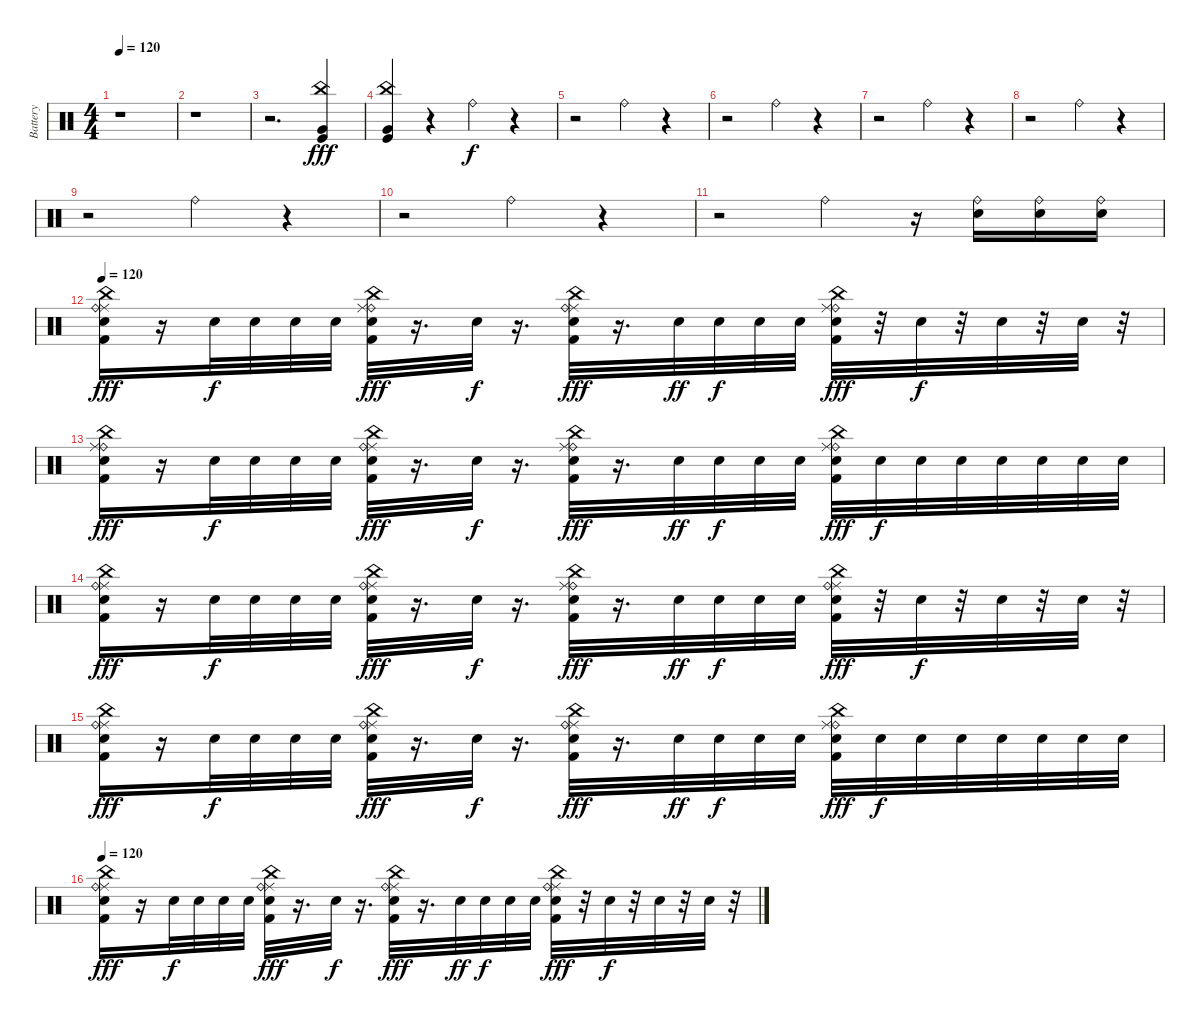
\track ("Battery" "Battery") {instrument percussion}
\staff {score}
\articulation defaults
\ts (4 4)
\tempo 120
\clef neutral
\ks c
r.1{dy fff} |
r.1 |
r.2{d} ("Very Low Tom (hit)" "China (hit)" "Kick (hit)").4 |
("Very Low Tom (hit)" "China (hit)" "Kick (hit)").4 r.4 "Ride (bell)".4{dy f} r.4 |
r.2 "Ride (bell)".4 r.4 |
r.2 "Ride (bell)".4 r.4 |
r.2 "Ride (bell)".4 r.4 |
r.2 "Ride (bell)".4 r.4 |
r.2 "Ride (bell)".4 r.4 |
r.2 "Ride (bell)".4 r.4 |
r.2 "Ride (bell)".4 r.16 ("Electric Snare (hit)" "Ride (bell)").16 ("Electric Snare (hit)" "Ride (bell)").16 ("Electric Snare (hit)" "Ride (bell)").16 |
\tempo 120
("China (hit)" "Electric Snare (hit)" "Ride (middle)" "Ride (bell)" "Kick (hit) 2").16{dy fff} r.16 "Electric Snare (hit)".32{dy f} "Electric Snare (hit)".32 "Electric Snare (hit)".32 "Electric Snare (hit)".32 ("China (hit)" "Ride (bell)" "Ride (middle)" "Electric Snare (hit)" "Kick (hit) 2").32{dy fff} r.16{d} "Electric Snare (hit)".32{dy f} r.16{d} ("Ride (middle)" "Ride (bell)" "Electric Snare (hit)" "China (hit)" "Kick (hit) 2").32{dy fff} r.16{d} "Electric Snare (hit)".32{dy ff} "Electric Snare (hit)".32{dy f} "Electric Snare (hit)".32 "Electric Snare (hit)".32 ("China (hit)" "Ride (bell)" "Electric Snare (hit)" "Ride (middle)" "Kick (hit) 2").32{dy fff} r.32 "Electric Snare (hit)".32{dy f} r.32 "Electric Snare (hit)".32 r.32 "Electric Snare (hit)".32 r.32 |
("Electric Snare (hit)" "China (hit)" "Ride (bell)" "Ride (middle)" "Kick (hit) 2").16{dy fff} r.16 "Electric Snare (hit)".32{dy f} "Electric Snare (hit)".32 "Electric Snare (hit)".32 "Electric Snare (hit)".32 ("Electric Snare (hit)" "Ride (middle)" "Ride (bell)" "China (hit)" "Kick (hit) 2").32{dy fff} r.16{d} "Electric Snare (hit)".32{dy f} r.16{d} ("Ride (bell)" "China (hit)" "Ride (middle)" "Electric Snare (hit)" "Kick (hit) 2").32{dy fff} r.16{d} "Electric Snare (hit)".32{dy ff} "Electric Snare (hit)".32{dy f} "Electric Snare (hit)".32 "Electric Snare (hit)".32 ("Electric Snare (hit)" "Ride (bell)" "China (hit)" "Ride (middle)" "Kick (hit) 2").32{dy fff} "Electric Snare (hit)".32{dy f} "Electric Snare (hit)".32 "Electric Snare (hit)".32 "Electric Snare (hit)".32 "Electric Snare (hit)".32 "Electric Snare (hit)".32 "Electric Snare (hit)".32 |
("Electric Snare (hit)" "Ride (middle)" "Ride (bell)" "China (hit)" "Kick (hit) 2").16{dy fff} r.16 "Electric Snare (hit)".32{dy f} "Electric Snare (hit)".32 "Electric Snare (hit)".32 "Electric Snare (hit)".32 ("China (hit)" "Ride (middle)" "Electric Snare (hit)" "Ride (bell)" "Kick (hit) 2").32{dy fff} r.16{d} "Electric Snare (hit)".32{dy f} r.16{d} ("Ride (bell)" "Ride (middle)" "China (hit)" "Electric Snare (hit)" "Kick (hit) 2").32{dy fff} r.16{d} "Electric Snare (hit)".32{dy ff} "Electric Snare (hit)".32{dy f} "Electric Snare (hit)".32 "Electric Snare (hit)".32 ("Ride (middle)" "Electric Snare (hit)" "Ride (bell)" "China (hit)" "Kick (hit) 2").32{dy fff} r.32 "Electric Snare (hit)".32{dy f} r.32 "Electric Snare (hit)".32 r.32 "Electric Snare (hit)".32 r.32 |
("China (hit)" "Ride (middle)" "Electric Snare (hit)" "Ride (bell)" "Kick (hit) 2").16{dy fff} r.16 "Electric Snare (hit)".32{dy f} "Electric Snare (hit)".32 "Electric Snare (hit)".32 "Electric Snare (hit)".32 ("Electric Snare (hit)" "Ride (middle)" "Ride (bell)" "China (hit)" "Kick (hit) 2").32{dy fff} r.16{d} "Electric Snare (hit)".32{dy f} r.16{d} ("Ride (middle)" "China (hit)" "Electric Snare (hit)" "Ride (bell)" "Kick (hit) 2").32{dy fff} r.16{d} "Electric Snare (hit)".32{dy ff} "Electric Snare (hit)".32{dy f} "Electric Snare (hit)".32 "Electric Snare (hit)".32 ("China (hit)" "Ride (bell)" "Electric Snare (hit)" "Ride (middle)" "Kick (hit) 2").32{dy fff} "Electric Snare (hit)".32{dy f} "Electric Snare (hit)".32 "Electric Snare (hit)".32 "Electric Snare (hit)".32 "Electric Snare (hit)".32 "Electric Snare (hit)".32 "Electric Snare (hit)".32 |
\tempo 120
("China (hit)" "Ride (middle)" "Ride (bell)" "Electric Snare (hit)" "Kick (hit) 2").16{dy fff} r.16 "Electric Snare (hit)".32{dy f} "Electric Snare (hit)".32 "Electric Snare (hit)".32 "Electric Snare (hit)".32 ("Ride (middle)" "Electric Snare (hit)" "China (hit)" "Ride (bell)" "Kick (hit) 2").32{dy fff} r.16{d} "Electric Snare (hit)".32{dy f} r.16{d} ("Ride (middle)" "Ride (bell)" "China (hit)" "Electric Snare (hit)" "Kick (hit) 2").32{dy fff} r.16{d} "Electric Snare (hit)".32{dy ff} "Electric Snare (hit)".32{dy f} "Electric Snare (hit)".32 "Electric Snare (hit)".32 ("Ride (middle)" "Ride (bell)" "China (hit)" "Electric Snare (hit)" "Kick (hit) 2").32{dy fff} r.32 "Electric Snare (hit)".32{dy f} r.32 "Electric Snare (hit)".32 r.32 "Electric Snare (hit)".32 r.32
